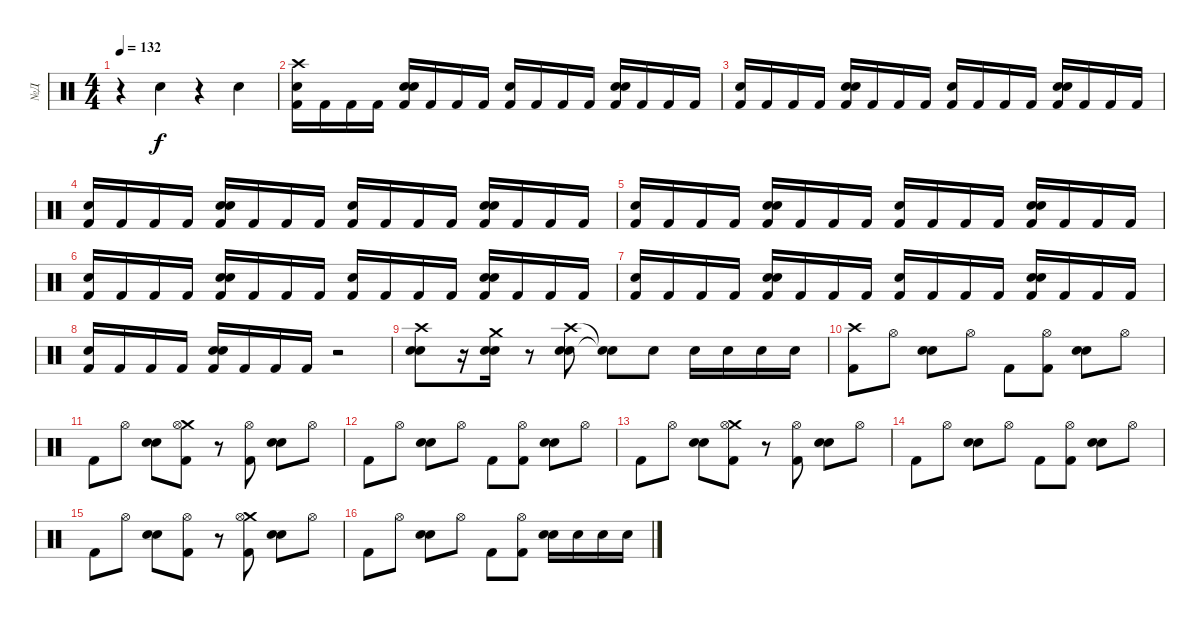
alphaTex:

\track ("№Д" "№Д") {instrument percussion}
\staff {score}
\articulation defaults
\ts (4 4)
\tempo 132
\clef neutral
\ks c
r.4{dy f} "Hand Clap (hit)".4 r.4 "Hand Clap (hit)".4 |
("Crash high (hit)" "Snare (hit) 2" "Kick (hit) 2").16{volume 8} "Kick (hit) 2".16{volume 16} "Kick (hit) 2".16 "Kick (hit) 2".16 ("Hand Clap (hit)" "Snare (hit) 2" "Kick (hit) 2").16 "Kick (hit) 2".16 "Kick (hit) 2".16 "Kick (hit) 2".16 ("Snare (hit) 2" "Kick (hit) 2").16 "Kick (hit) 2".16 "Kick (hit) 2".16 "Kick (hit) 2".16 ("Hand Clap (hit)" "Snare (hit) 2" "Kick (hit) 2").16 "Kick (hit) 2".16 "Kick (hit) 2".16 "Kick (hit) 2".16 |
("Snare (hit) 2" "Kick (hit) 2").16 "Kick (hit) 2".16 "Kick (hit) 2".16 "Kick (hit) 2".16 ("Hand Clap (hit)" "Snare (hit) 2" "Kick (hit) 2").16 "Kick (hit) 2".16 "Kick (hit) 2".16 "Kick (hit) 2".16 ("Snare (hit) 2" "Kick (hit) 2").16 "Kick (hit) 2".16 "Kick (hit) 2".16 "Kick (hit) 2".16 ("Hand Clap (hit)" "Snare (hit) 2" "Kick (hit) 2").16 "Kick (hit) 2".16 "Kick (hit) 2".16 "Kick (hit) 2".16 |
("Snare (hit) 2" "Kick (hit) 2").16 "Kick (hit) 2".16 "Kick (hit) 2".16 "Kick (hit) 2".16 ("Hand Clap (hit)" "Snare (hit) 2" "Kick (hit) 2").16 "Kick (hit) 2".16 "Kick (hit) 2".16 "Kick (hit) 2".16 ("Snare (hit) 2" "Kick (hit) 2").16 "Kick (hit) 2".16 "Kick (hit) 2".16 "Kick (hit) 2".16 ("Hand Clap (hit)" "Snare (hit) 2" "Kick (hit) 2").16 "Kick (hit) 2".16 "Kick (hit) 2".16 "Kick (hit) 2".16 |
("Snare (hit) 2" "Kick (hit) 2").16 "Kick (hit) 2".16 "Kick (hit) 2".16 "Kick (hit) 2".16 ("Hand Clap (hit)" "Snare (hit) 2" "Kick (hit) 2").16 "Kick (hit) 2".16 "Kick (hit) 2".16 "Kick (hit) 2".16 ("Snare (hit) 2" "Kick (hit) 2").16 "Kick (hit) 2".16 "Kick (hit) 2".16 "Kick (hit) 2".16 ("Hand Clap (hit)" "Snare (hit) 2" "Kick (hit) 2").16 "Kick (hit) 2".16 "Kick (hit) 2".16 "Kick (hit) 2".16 |
("Snare (hit) 2" "Kick (hit) 2").16 "Kick (hit) 2".16 "Kick (hit) 2".16 "Kick (hit) 2".16 ("Hand Clap (hit)" "Snare (hit) 2" "Kick (hit) 2").16 "Kick (hit) 2".16 "Kick (hit) 2".16 "Kick (hit) 2".16 ("Snare (hit) 2" "Kick (hit) 2").16 "Kick (hit) 2".16 "Kick (hit) 2".16 "Kick (hit) 2".16 ("Hand Clap (hit)" "Snare (hit) 2" "Kick (hit) 2").16 "Kick (hit) 2".16 "Kick (hit) 2".16 "Kick (hit) 2".16 |
("Snare (hit) 2" "Kick (hit) 2").16 "Kick (hit) 2".16 "Kick (hit) 2".16 "Kick (hit) 2".16 ("Hand Clap (hit)" "Snare (hit) 2" "Kick (hit) 2").16 "Kick (hit) 2".16 "Kick (hit) 2".16 "Kick (hit) 2".16 ("Snare (hit) 2" "Kick (hit) 2").16 "Kick (hit) 2".16 "Kick (hit) 2".16 "Kick (hit) 2".16 ("Hand Clap (hit)" "Snare (hit) 2" "Kick (hit) 2").16 "Kick (hit) 2".16 "Kick (hit) 2".16 "Kick (hit) 2".16 |
("Snare (hit) 2" "Kick (hit) 2").16 "Kick (hit) 2".16 "Kick (hit) 2".16 "Kick (hit) 2".16 ("Hand Clap (hit)" "Snare (hit) 2" "Kick (hit) 2").16 "Kick (hit) 2".16 "Kick (hit) 2".16 "Kick (hit) 2".16 r.2 |
("Crash high (hit)" "Snare (hit) 2" "Electric Snare (hit)").8 r.16 ("Crash medium (hit)" "Snare (hit) 2" "Electric Snare (hit)").16 r.8 ("Crash high (hit)" "Snare (hit) 2" "Electric Snare (hit)").8 ("Snare (hit)"{t} "Snare (hit)"{t}).8 "Snare (hit) 2".8 "Snare (hit) 2".16 "Snare (hit) 2".16 "Snare (hit) 2".16 "Snare (hit) 2".16 |
("Crash high (hit)" "Kick (hit) 2").8 "Hi-Hat (open)".8 ("Hand Clap (hit)" "Snare (hit) 2").8 "Hi-Hat (open)".8 "Kick (hit) 2".8 ("Hi-Hat (open)" "Kick (hit) 2").8 ("Hand Clap (hit)" "Snare (hit) 2").8 "Hi-Hat (open)".8 |
"Kick (hit) 2".8 "Hi-Hat (open)".8 ("Hand Clap (hit)" "Snare (hit) 2").8 ("Crash medium (hit)" "Hi-Hat (open)" "Kick (hit) 2").8 r.8 ("Hi-Hat (open)" "Kick (hit) 2").8 ("Hand Clap (hit)" "Snare (hit) 2").8 "Hi-Hat (open)".8 |
"Kick (hit) 2".8 "Hi-Hat (open)".8 ("Hand Clap (hit)" "Snare (hit) 2").8 "Hi-Hat (open)".8 "Kick (hit) 2".8 ("Hi-Hat (open)" "Kick (hit) 2").8 ("Hand Clap (hit)" "Snare (hit) 2").8 "Hi-Hat (open)".8 |
"Kick (hit) 2".8 "Hi-Hat (open)".8 ("Hand Clap (hit)" "Snare (hit) 2").8 ("Crash medium (hit)" "Hi-Hat (open)" "Kick (hit) 2").8 r.8 ("Hi-Hat (open)" "Kick (hit) 2").8 ("Hand Clap (hit)" "Snare (hit) 2").8 "Hi-Hat (open)".8 |
"Kick (hit) 2".8 "Hi-Hat (open)".8 ("Hand Clap (hit)" "Snare (hit) 2").8 "Hi-Hat (open)".8 "Kick (hit) 2".8 ("Hi-Hat (open)" "Kick (hit) 2").8 ("Hand Clap (hit)" "Snare (hit) 2").8 "Hi-Hat (open)".8 |
"Kick (hit) 2".8 "Hi-Hat (open)".8 ("Hand Clap (hit)" "Snare (hit) 2").8 ("Hi-Hat (open)" "Kick (hit) 2").8 r.8 ("Crash medium (hit)" "Hi-Hat (open)" "Kick (hit) 2").8 ("Hand Clap (hit)" "Snare (hit) 2").8 "Hi-Hat (open)".8 |
"Kick (hit) 2".8 "Hi-Hat (open)".8 ("Hand Clap (hit)" "Snare (hit) 2").8 "Hi-Hat (open)".8 "Kick (hit) 2".8 ("Hi-Hat (open)" "Kick (hit) 2").8 ("Hand Clap (hit)" "Snare (hit) 2").16 "Snare (hit) 2".16 "Snare (hit) 2".16 "Snare (hit) 2".16
